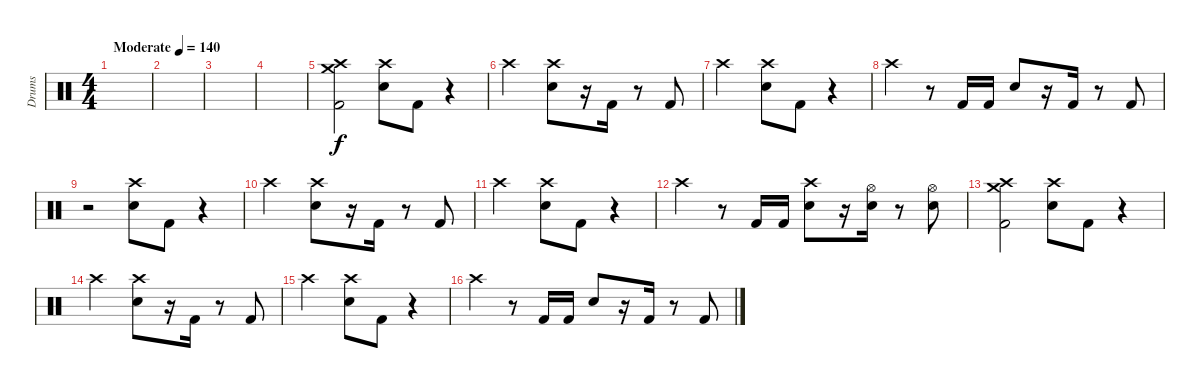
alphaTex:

\track ("Drums" "Drums") {instrument percussion}
\staff {score}
\articulation defaults
\ts (4 4)
\tempo (140 "Moderate")
\clef neutral
\ks c
|
|
|
|
("Crash medium (hit)" "Crash high (hit)" "Kick (hit) 2").2 ("Crash high (hit)" "Electric Snare (hit)").8 "Kick (hit) 2".8 r.4 |
"Crash high (hit)".2 ("Crash high (hit)" "Electric Snare (hit)").8 r.16 "Kick (hit) 2".16 r.8 "Kick (hit) 2".8 |
"Crash high (hit)".2 ("Crash high (hit)" "Electric Snare (hit)").8 "Kick (hit) 2".8 r.4 |
"Crash high (hit)".4 r.8 "Kick (hit) 2".16 "Kick (hit) 2".16 "Electric Snare (hit)".8 r.16 "Kick (hit) 2".16 r.8 "Kick (hit) 2".8 |
r.2 ("Crash high (hit)" "Electric Snare (hit)").8 "Kick (hit) 2".8 r.4 |
"Crash high (hit)".2 ("Crash high (hit)" "Electric Snare (hit)").8 r.16 "Kick (hit) 2".16 r.8 "Kick (hit) 2".8 |
"Crash high (hit)".2 ("Crash high (hit)" "Electric Snare (hit)").8 "Kick (hit) 2".8 r.4 |
"Crash high (hit)".4 r.8 "Kick (hit) 2".16 "Kick (hit) 2".16 ("Crash high (hit)" "Electric Snare (hit)").8 r.16 ("Hi-Hat (open)" "Electric Snare (hit)").16 r.8 ("Hi-Hat (open)" "Electric Snare (hit)").8 |
("Crash medium (hit)" "Crash high (hit)" "Kick (hit) 2").2 ("Crash high (hit)" "Electric Snare (hit)").8 "Kick (hit) 2".8 r.4 |
"Crash high (hit)".2 ("Crash high (hit)" "Electric Snare (hit)").8 r.16 "Kick (hit) 2".16 r.8 "Kick (hit) 2".8 |
"Crash high (hit)".2 ("Crash high (hit)" "Electric Snare (hit)").8 "Kick (hit) 2".8 r.4 |
"Crash high (hit)".4 r.8 "Kick (hit) 2".16 "Kick (hit) 2".16 "Electric Snare (hit)".8 r.16 "Kick (hit) 2".16 r.8 "Kick (hit) 2".8
